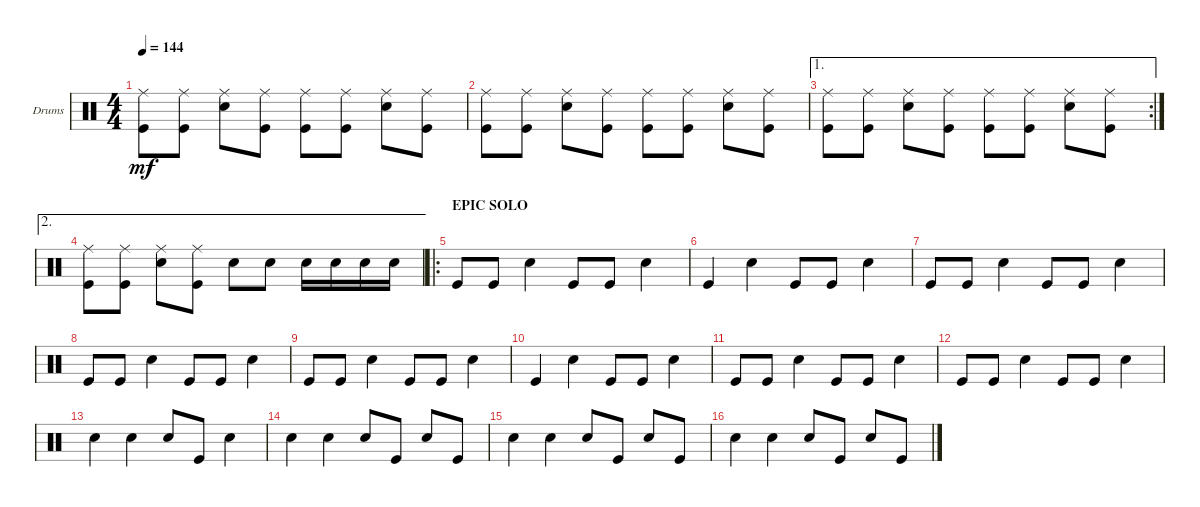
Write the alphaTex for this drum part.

\defaultSystemsLayout 4
\bracketExtendMode groupsimilarinstruments
\firstSystemTrackNameOrientation horizontal
\otherSystemsTrackNameOrientation horizontal
\track ("Fabrizio Moretti" "Drums") {instrument percussion}
\staff {score}
\articulation defaults
\ts (4 4)
\tempo 144
\clef neutral
\ks c
("Kick (hit)" "Ride (middle)").8{dy mf} ("Kick (hit)" "Ride (middle)").8 ("Snare (hit) 2" "Ride (middle)").8 ("Kick (hit)" "Ride (middle)").8 ("Kick (hit)" "Ride (middle)").8 ("Kick (hit)" "Ride (middle)").8 ("Snare (hit) 2" "Ride (middle)").8 ("Kick (hit)" "Ride (middle)").8 |
("Kick (hit)" "Ride (middle)").8 ("Kick (hit)" "Ride (middle)").8 ("Snare (hit) 2" "Ride (middle)").8 ("Kick (hit)" "Ride (middle)").8 ("Kick (hit)" "Ride (middle)").8 ("Kick (hit)" "Ride (middle)").8 ("Snare (hit) 2" "Ride (middle)").8 ("Kick (hit)" "Ride (middle)").8 |
\ae 1
\rc 2
("Kick (hit)" "Ride (middle)").8 ("Kick (hit)" "Ride (middle)").8 ("Snare (hit) 2" "Ride (middle)").8 ("Kick (hit)" "Ride (middle)").8 ("Kick (hit)" "Ride (middle)").8 ("Kick (hit)" "Ride (middle)").8 ("Snare (hit) 2" "Ride (middle)").8 ("Kick (hit)" "Ride (middle)").8 |
\ae 2
("Kick (hit)" "Ride (middle)").8 ("Kick (hit)" "Ride (middle)").8 ("Snare (hit) 2" "Ride (middle)").8 ("Kick (hit)" "Ride (middle)").8 "Snare (hit) 2".8 "Snare (hit) 2".8 "Snare (hit) 2".16 "Snare (hit) 2".16 "Snare (hit) 2".16 "Snare (hit) 2".16 |
\ro
\section ("" "EPIC SOLO")
"Kick (hit)".8 "Kick (hit)".8 "Snare (hit) 2".4 "Kick (hit)".8 "Kick (hit)".8 "Snare (hit) 2".4 |
"Kick (hit)".4 "Snare (hit) 2".4 "Kick (hit)".8 "Kick (hit)".8 "Snare (hit) 2".4 |
"Kick (hit)".8 "Kick (hit)".8 "Snare (hit) 2".4 "Kick (hit)".8 "Kick (hit)".8 "Snare (hit) 2".4 |
"Kick (hit)".8 "Kick (hit)".8 "Snare (hit) 2".4 "Kick (hit)".8 "Kick (hit)".8 "Snare (hit) 2".4 |
"Kick (hit)".8 "Kick (hit)".8 "Snare (hit) 2".4 "Kick (hit)".8 "Kick (hit)".8 "Snare (hit) 2".4 |
"Kick (hit)".4 "Snare (hit) 2".4 "Kick (hit)".8 "Kick (hit)".8 "Snare (hit) 2".4 |
"Kick (hit)".8 "Kick (hit)".8 "Snare (hit) 2".4 "Kick (hit)".8 "Kick (hit)".8 "Snare (hit) 2".4 |
"Kick (hit)".8 "Kick (hit)".8 "Snare (hit) 2".4 "Kick (hit)".8 "Kick (hit)".8 "Snare (hit) 2".4 |
"Snare (hit) 2".4 "Snare (hit) 2".4 "Snare (hit) 2".8 "Kick (hit)".8 "Snare (hit) 2".4 |
"Snare (hit) 2".4 "Snare (hit) 2".4 "Snare (hit) 2".8 "Kick (hit)".8 "Snare (hit) 2".8 "Kick (hit)".8 |
"Snare (hit) 2".4 "Snare (hit) 2".4 "Snare (hit) 2".8 "Kick (hit)".8 "Snare (hit) 2".8 "Kick (hit)".8 |
"Snare (hit) 2".4 "Snare (hit) 2".4 "Snare (hit) 2".8 "Kick (hit)".8 "Snare (hit) 2".8 "Kick (hit)".8
